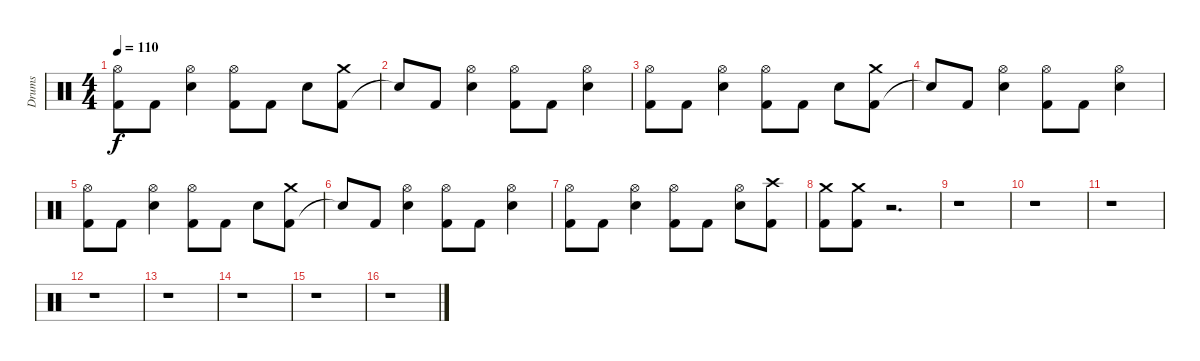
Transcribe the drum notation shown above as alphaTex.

\track ("Drums" "Drums") {instrument percussion}
\staff {score}
\articulation defaults
\ts (4 4)
\tempo 110
\clef neutral
\ks c
("Kick (hit) 2" "Hi-Hat (open)").8{dy f} "Kick (hit) 2".8 ("Hi-Hat (open)" "Snare (hit) 2").4 ("Kick (hit) 2" "Hi-Hat (open)").8 "Kick (hit) 2".8 "Snare (hit) 2".8 ("Kick (hit) 2" "Crash medium (hit)").8 |
"Snare (hit)"{t}.8 "Kick (hit) 2".8 ("Hi-Hat (open)" "Snare (hit) 2").4 ("Kick (hit) 2" "Hi-Hat (open)").8 "Kick (hit) 2".8 ("Hi-Hat (open)" "Snare (hit) 2").4 |
("Kick (hit) 2" "Hi-Hat (open)").8 "Kick (hit) 2".8 ("Hi-Hat (open)" "Snare (hit) 2").4 ("Kick (hit) 2" "Hi-Hat (open)").8 "Kick (hit) 2".8 "Snare (hit) 2".8 ("Kick (hit) 2" "Crash medium (hit)").8 |
"Snare (hit)"{t}.8 "Kick (hit) 2".8 ("Hi-Hat (open)" "Snare (hit) 2").4 ("Kick (hit) 2" "Hi-Hat (open)").8 "Kick (hit) 2".8 ("Hi-Hat (open)" "Snare (hit) 2").4 |
("Kick (hit) 2" "Hi-Hat (open)").8 "Kick (hit) 2".8 ("Hi-Hat (open)" "Snare (hit) 2").4 ("Kick (hit) 2" "Hi-Hat (open)").8 "Kick (hit) 2".8 "Snare (hit) 2".8 ("Kick (hit) 2" "Crash medium (hit)").8 |
"Snare (hit)"{t}.8 "Kick (hit) 2".8 ("Hi-Hat (open)" "Snare (hit) 2").4 ("Kick (hit) 2" "Hi-Hat (open)").8 "Kick (hit) 2".8 ("Hi-Hat (open)" "Snare (hit) 2").4 |
("Kick (hit) 2" "Hi-Hat (open)").8 "Kick (hit) 2".8 ("Hi-Hat (open)" "Snare (hit) 2").4 ("Kick (hit) 2" "Hi-Hat (open)").8 "Kick (hit) 2".8 ("Hi-Hat (open)" "Snare (hit) 2").8 ("Kick (hit) 2" "Crash high (hit)").8 |
("Kick (hit) 2" "Crash medium (hit)").8 ("Kick (hit) 2" "Crash medium (hit)").8 r.2{d} |
r.1 |
r.1 |
r.1 |
r.1 |
r.1 |
r.1 |
r.1 |
r.1
